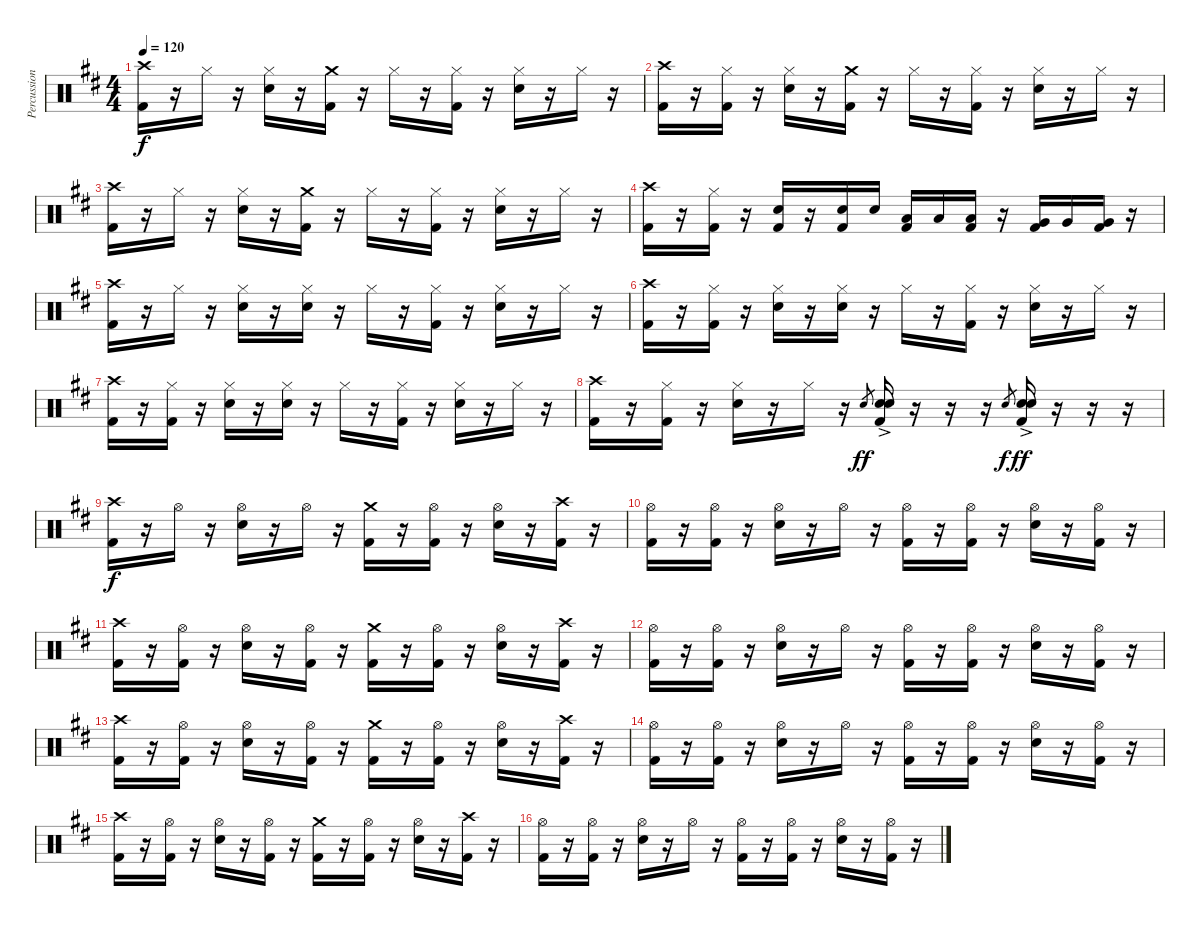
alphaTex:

\track ("Percussion" "Percussion") {instrument percussion}
\staff {score}
\articulation defaults
\ts (4 4)
\tempo 120
\clef neutral
\ks d
("Crash high (hit)" "Kick (hit) 2").16{dy f} r.16 "Hi-Hat (closed)".16 r.16 ("Hi-Hat (closed)" "Snare (hit) 2").16 r.16 ("Crash medium (hit)" "Kick (hit) 2").16 r.16 "Hi-Hat (closed)".16 r.16 ("Hi-Hat (closed)" "Kick (hit) 2").16 r.16 ("Hi-Hat (closed)" "Snare (hit) 2").16 r.16 "Hi-Hat (closed)".16 r.16 |
("Crash high (hit)" "Kick (hit) 2").16 r.16 ("Hi-Hat (closed)" "Kick (hit) 2").16 r.16 ("Hi-Hat (closed)" "Snare (hit) 2").16 r.16 ("Crash medium (hit)" "Kick (hit) 2").16 r.16 "Hi-Hat (closed)".16 r.16 ("Hi-Hat (closed)" "Kick (hit) 2").16 r.16 ("Hi-Hat (closed)" "Snare (hit) 2").16 r.16 "Hi-Hat (closed)".16 r.16 |
("Crash high (hit)" "Kick (hit) 2").16 r.16 "Hi-Hat (closed)".16 r.16 ("Hi-Hat (closed)" "Snare (hit) 2").16 r.16 ("Crash medium (hit)" "Kick (hit) 2").16 r.16 "Hi-Hat (closed)".16 r.16 ("Hi-Hat (closed)" "Kick (hit) 2").16 r.16 ("Hi-Hat (closed)" "Snare (hit) 2").16 r.16 "Hi-Hat (closed)".16 r.16 |
("Crash high (hit)" "Kick (hit) 2").16 r.16 ("Hi-Hat (closed)" "Kick (hit) 2").16 r.16 ("Snare (hit) 2" "Kick (hit) 2").16 r.16 ("Snare (hit) 2" "Kick (hit) 2").16 "Snare (hit) 2".16 ("Low Floor Tom (hit)" "Kick (hit) 2").16 "Low Floor Tom (hit)".16 ("Low Floor Tom (hit)" "Kick (hit) 2").16 r.16 ("Very Low Tom (hit)" "Kick (hit) 2").16 "Very Low Tom (hit)".16 ("Very Low Tom (hit)" "Kick (hit) 2").16 r.16 |
("Crash high (hit)" "Kick (hit) 2").16 r.16 "Hi-Hat (closed)".16 r.16 ("Hi-Hat (closed)" "Snare (hit) 2").16 r.16 ("Hi-Hat (closed)" "Snare (hit) 2").16 r.16 "Hi-Hat (closed)".16 r.16 ("Hi-Hat (closed)" "Kick (hit) 2").16 r.16 ("Hi-Hat (closed)" "Snare (hit) 2").16 r.16 "Hi-Hat (closed)".16 r.16 |
("Crash high (hit)" "Kick (hit) 2").16 r.16 ("Hi-Hat (closed)" "Kick (hit) 2").16 r.16 ("Hi-Hat (closed)" "Snare (hit) 2").16 r.16 ("Hi-Hat (closed)" "Snare (hit) 2").16 r.16 "Hi-Hat (closed)".16 r.16 ("Hi-Hat (closed)" "Kick (hit) 2").16 r.16 ("Hi-Hat (closed)" "Snare (hit) 2").16 r.16 "Hi-Hat (closed)".16 r.16 |
("Crash high (hit)" "Kick (hit) 2").16 r.16 ("Hi-Hat (closed)" "Kick (hit) 2").16 r.16 ("Hi-Hat (closed)" "Snare (hit) 2").16 r.16 ("Hi-Hat (closed)" "Snare (hit) 2").16 r.16 "Hi-Hat (closed)".16 r.16 ("Hi-Hat (closed)" "Kick (hit) 2").16 r.16 ("Hi-Hat (closed)" "Snare (hit) 2").16 r.16 "Hi-Hat (closed)".16 r.16 |
("Crash high (hit)" "Kick (hit) 2").16 r.16 ("Hi-Hat (closed)" "Kick (hit) 2").16 r.16 ("Hi-Hat (closed)" "Snare (hit) 2").16 r.16 "Hi-Hat (closed)".16 r.16 "Snare (hit) 2".8{gr dy ff} ("Electric Snare (hit)"{ac} "Snare (hit) 2"{ac} "Kick (hit) 2"{ac}).16 r.16 r.16 r.16 "Snare (hit) 2".8{gr dy f} ("Electric Snare (hit)"{ac} "Snare (hit) 2"{ac} "Kick (hit) 2"{ac}).16{dy ff} r.16 r.16 r.16 |
("Crash high (hit)" "Kick (hit) 2").16{dy f} r.16 "Hi-Hat (open)".16 r.16 ("Hi-Hat (open)" "Snare (hit) 2").16 r.16 "Hi-Hat (open)".16 r.16 ("Crash medium (hit)" "Kick (hit) 2").16 r.16 ("Hi-Hat (open)" "Kick (hit) 2").16 r.16 ("Hi-Hat (open)" "Snare (hit) 2").16 r.16 ("Crash high (hit)" "Kick (hit) 2").16 r.16 |
("Hi-Hat (open)" "Kick (hit) 2").16 r.16 ("Hi-Hat (open)" "Kick (hit) 2").16 r.16 ("Hi-Hat (open)" "Snare (hit) 2").16 r.16 "Hi-Hat (open)".16 r.16 ("Hi-Hat (open)" "Kick (hit) 2").16 r.16 ("Hi-Hat (open)" "Kick (hit) 2").16 r.16 ("Hi-Hat (open)" "Snare (hit) 2").16 r.16 ("Hi-Hat (open)" "Kick (hit) 2").16 r.16 |
("Crash high (hit)" "Kick (hit) 2").16 r.16 ("Hi-Hat (open)" "Kick (hit) 2").16 r.16 ("Hi-Hat (open)" "Snare (hit) 2").16 r.16 ("Hi-Hat (open)" "Kick (hit) 2").16 r.16 ("Crash medium (hit)" "Kick (hit) 2").16 r.16 ("Hi-Hat (open)" "Kick (hit) 2").16 r.16 ("Hi-Hat (open)" "Snare (hit) 2").16 r.16 ("Crash high (hit)" "Kick (hit) 2").16 r.16 |
("Hi-Hat (open)" "Kick (hit) 2").16 r.16 ("Hi-Hat (open)" "Kick (hit) 2").16 r.16 ("Hi-Hat (open)" "Snare (hit) 2").16 r.16 "Hi-Hat (open)".16 r.16 ("Hi-Hat (open)" "Kick (hit) 2").16 r.16 ("Hi-Hat (open)" "Kick (hit) 2").16 r.16 ("Hi-Hat (open)" "Snare (hit) 2").16 r.16 ("Hi-Hat (open)" "Kick (hit) 2").16 r.16 |
("Crash high (hit)" "Kick (hit) 2").16 r.16 ("Hi-Hat (open)" "Kick (hit) 2").16 r.16 ("Hi-Hat (open)" "Snare (hit) 2").16 r.16 ("Hi-Hat (open)" "Kick (hit) 2").16 r.16 ("Crash medium (hit)" "Kick (hit) 2").16 r.16 ("Hi-Hat (open)" "Kick (hit) 2").16 r.16 ("Hi-Hat (open)" "Snare (hit) 2").16 r.16 ("Crash high (hit)" "Kick (hit) 2").16 r.16 |
("Hi-Hat (open)" "Kick (hit) 2").16 r.16 ("Hi-Hat (open)" "Kick (hit) 2").16 r.16 ("Hi-Hat (open)" "Snare (hit) 2").16 r.16 "Hi-Hat (open)".16 r.16 ("Hi-Hat (open)" "Kick (hit) 2").16 r.16 ("Hi-Hat (open)" "Kick (hit) 2").16 r.16 ("Hi-Hat (open)" "Snare (hit) 2").16 r.16 ("Hi-Hat (open)" "Kick (hit) 2").16 r.16 |
("Crash high (hit)" "Kick (hit) 2").16 r.16 ("Hi-Hat (open)" "Kick (hit) 2").16 r.16 ("Hi-Hat (open)" "Snare (hit) 2").16 r.16 ("Hi-Hat (open)" "Kick (hit) 2").16 r.16 ("Crash medium (hit)" "Kick (hit) 2").16 r.16 ("Hi-Hat (open)" "Kick (hit) 2").16 r.16 ("Hi-Hat (open)" "Snare (hit) 2").16 r.16 ("Crash high (hit)" "Kick (hit) 2").16 r.16 |
("Hi-Hat (open)" "Kick (hit) 2").16 r.16 ("Hi-Hat (open)" "Kick (hit) 2").16 r.16 ("Hi-Hat (open)" "Snare (hit) 2").16 r.16 "Hi-Hat (open)".16 r.16 ("Hi-Hat (open)" "Kick (hit) 2").16 r.16 ("Hi-Hat (open)" "Kick (hit) 2").16 r.16 ("Hi-Hat (open)" "Snare (hit) 2").16 r.16 ("Hi-Hat (open)" "Kick (hit) 2").16 r.16
